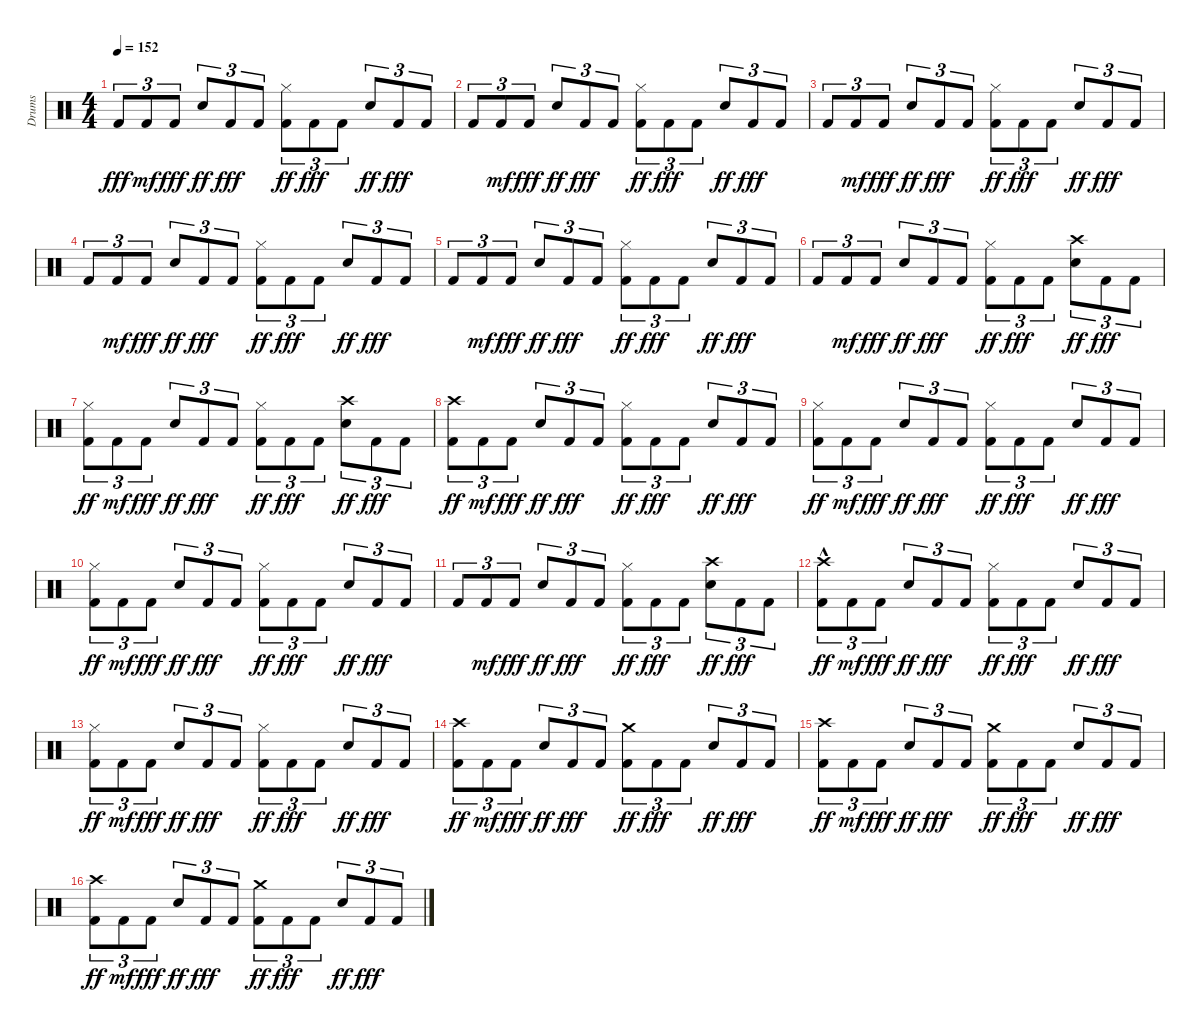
\track ("Drums" "Drums") {instrument percussion}
\staff {score}
\articulation defaults
\ts (4 4)
\tempo 152
\clef neutral
\ks c "Kick (hit) 2".8{tu (3 2) dy fff} "Kick (hit) 2".8{tu (3 2) dy mf} "Kick (hit) 2".8{tu (3 2) dy fff} "Snare (hit) 2".8{tu (3 2) dy ff} "Kick (hit) 2".8{tu (3 2) dy fff} "Kick (hit) 2".8{tu (3 2)}
("Kick (hit) 2" "Hi-Hat (closed)").8{tu (3 2) dy ff} "Kick (hit) 2".8{tu (3 2) dy fff} "Kick (hit) 2".8{tu (3 2)} "Snare (hit) 2".8{tu (3 2) dy ff} "Kick (hit) 2".8{tu (3 2) dy fff} "Kick (hit) 2".8{tu (3 2)} |
"Kick (hit) 2".8{tu (3 2)} "Kick (hit) 2".8{tu (3 2) dy mf} "Kick (hit) 2".8{tu (3 2) dy fff} "Snare (hit) 2".8{tu (3 2) dy ff} "Kick (hit) 2".8{tu (3 2) dy fff} "Kick (hit) 2".8{tu (3 2)} ("Kick (hit) 2" "Hi-Hat (closed)").8{tu (3 2) dy ff} "Kick (hit) 2".8{tu (3 2) dy fff} "Kick (hit) 2".8{tu (3 2)} "Snare (hit) 2".8{tu (3 2) dy ff} "Kick (hit) 2".8{tu (3 2) dy fff} "Kick (hit) 2".8{tu (3 2)} |
"Kick (hit) 2".8{tu (3 2)} "Kick (hit) 2".8{tu (3 2) dy mf} "Kick (hit) 2".8{tu (3 2) dy fff} "Snare (hit) 2".8{tu (3 2) dy ff} "Kick (hit) 2".8{tu (3 2) dy fff} "Kick (hit) 2".8{tu (3 2)} ("Kick (hit) 2" "Hi-Hat (closed)").8{tu (3 2) dy ff} "Kick (hit) 2".8{tu (3 2) dy fff} "Kick (hit) 2".8{tu (3 2)} "Snare (hit) 2".8{tu (3 2) dy ff} "Kick (hit) 2".8{tu (3 2) dy fff} "Kick (hit) 2".8{tu (3 2)} |
"Kick (hit) 2".8{tu (3 2)} "Kick (hit) 2".8{tu (3 2) dy mf} "Kick (hit) 2".8{tu (3 2) dy fff} "Snare (hit) 2".8{tu (3 2) dy ff} "Kick (hit) 2".8{tu (3 2) dy fff} "Kick (hit) 2".8{tu (3 2)} ("Kick (hit) 2" "Hi-Hat (closed)").8{tu (3 2) dy ff} "Kick (hit) 2".8{tu (3 2) dy fff} "Kick (hit) 2".8{tu (3 2)} "Snare (hit) 2".8{tu (3 2) dy ff} "Kick (hit) 2".8{tu (3 2) dy fff} "Kick (hit) 2".8{tu (3 2)} |
"Kick (hit) 2".8{tu (3 2)} "Kick (hit) 2".8{tu (3 2) dy mf} "Kick (hit) 2".8{tu (3 2) dy fff} "Snare (hit) 2".8{tu (3 2) dy ff} "Kick (hit) 2".8{tu (3 2) dy fff} "Kick (hit) 2".8{tu (3 2)} ("Kick (hit) 2" "Hi-Hat (closed)").8{tu (3 2) dy ff} "Kick (hit) 2".8{tu (3 2) dy fff} "Kick (hit) 2".8{tu (3 2)} "Snare (hit) 2".8{tu (3 2) dy ff} "Kick (hit) 2".8{tu (3 2) dy fff} "Kick (hit) 2".8{tu (3 2)} |
"Kick (hit) 2".8{tu (3 2)} "Kick (hit) 2".8{tu (3 2) dy mf} "Kick (hit) 2".8{tu (3 2) dy fff} "Snare (hit) 2".8{tu (3 2) dy ff} "Kick (hit) 2".8{tu (3 2) dy fff} "Kick (hit) 2".8{tu (3 2)} ("Kick (hit) 2" "Hi-Hat (closed)").8{tu (3 2) dy ff} "Kick (hit) 2".8{tu (3 2) dy fff} "Kick (hit) 2".8{tu (3 2)} ("Snare (hit) 2" "Crash high (hit)").8{tu (3 2) dy ff} "Kick (hit) 2".8{tu (3 2) dy fff} "Kick (hit) 2".8{tu (3 2)} |
("Kick (hit) 2" "Hi-Hat (closed)").8{tu (3 2) dy ff} "Kick (hit) 2".8{tu (3 2) dy mf} "Kick (hit) 2".8{tu (3 2) dy fff} "Snare (hit) 2".8{tu (3 2) dy ff} "Kick (hit) 2".8{tu (3 2) dy fff} "Kick (hit) 2".8{tu (3 2)} ("Kick (hit) 2" "Hi-Hat (closed)").8{tu (3 2) dy ff} "Kick (hit) 2".8{tu (3 2) dy fff} "Kick (hit) 2".8{tu (3 2)} ("Snare (hit) 2" "Crash high (hit)").8{tu (3 2) dy ff} "Kick (hit) 2".8{tu (3 2) dy fff} "Kick (hit) 2".8{tu (3 2)} |
("Kick (hit) 2" "Crash high (hit)").8{tu (3 2) dy ff} "Kick (hit) 2".8{tu (3 2) dy mf} "Kick (hit) 2".8{tu (3 2) dy fff} "Snare (hit) 2".8{tu (3 2) dy ff} "Kick (hit) 2".8{tu (3 2) dy fff} "Kick (hit) 2".8{tu (3 2)} ("Kick (hit) 2" "Hi-Hat (closed)").8{tu (3 2) dy ff} "Kick (hit) 2".8{tu (3 2) dy fff} "Kick (hit) 2".8{tu (3 2)} "Snare (hit) 2".8{tu (3 2) dy ff} "Kick (hit) 2".8{tu (3 2) dy fff} "Kick (hit) 2".8{tu (3 2)} |
("Kick (hit) 2" "Hi-Hat (closed)").8{tu (3 2) dy ff} "Kick (hit) 2".8{tu (3 2) dy mf} "Kick (hit) 2".8{tu (3 2) dy fff} "Snare (hit) 2".8{tu (3 2) dy ff} "Kick (hit) 2".8{tu (3 2) dy fff} "Kick (hit) 2".8{tu (3 2)} ("Kick (hit) 2" "Hi-Hat (closed)").8{tu (3 2) dy ff} "Kick (hit) 2".8{tu (3 2) dy fff} "Kick (hit) 2".8{tu (3 2)} "Snare (hit) 2".8{tu (3 2) dy ff} "Kick (hit) 2".8{tu (3 2) dy fff} "Kick (hit) 2".8{tu (3 2)} |
("Kick (hit) 2" "Hi-Hat (closed)").8{tu (3 2) dy ff} "Kick (hit) 2".8{tu (3 2) dy mf} "Kick (hit) 2".8{tu (3 2) dy fff} "Snare (hit) 2".8{tu (3 2) dy ff} "Kick (hit) 2".8{tu (3 2) dy fff} "Kick (hit) 2".8{tu (3 2)} ("Kick (hit) 2" "Hi-Hat (closed)").8{tu (3 2) dy ff} "Kick (hit) 2".8{tu (3 2) dy fff} "Kick (hit) 2".8{tu (3 2)} "Snare (hit) 2".8{tu (3 2) dy ff} "Kick (hit) 2".8{tu (3 2) dy fff} "Kick (hit) 2".8{tu (3 2)} |
"Kick (hit) 2".8{tu (3 2)} "Kick (hit) 2".8{tu (3 2) dy mf} "Kick (hit) 2".8{tu (3 2) dy fff} "Snare (hit) 2".8{tu (3 2) dy ff} "Kick (hit) 2".8{tu (3 2) dy fff} "Kick (hit) 2".8{tu (3 2)} ("Kick (hit) 2" "Hi-Hat (closed)").8{tu (3 2) dy ff} "Kick (hit) 2".8{tu (3 2) dy fff} "Kick (hit) 2".8{tu (3 2)} ("Snare (hit) 2" "Crash high (hit)").8{tu (3 2) dy ff} "Kick (hit) 2".8{tu (3 2) dy fff} "Kick (hit) 2".8{tu (3 2)} |
("Kick (hit) 2" "Crash high (hit)"{hac}).8{tu (3 2) dy ff} "Kick (hit) 2".8{tu (3 2) dy mf} "Kick (hit) 2".8{tu (3 2) dy fff} "Snare (hit) 2".8{tu (3 2) dy ff} "Kick (hit) 2".8{tu (3 2) dy fff} "Kick (hit) 2".8{tu (3 2)} ("Kick (hit) 2" "Hi-Hat (closed)").8{tu (3 2) dy ff} "Kick (hit) 2".8{tu (3 2) dy fff} "Kick (hit) 2".8{tu (3 2)} "Snare (hit) 2".8{tu (3 2) dy ff} "Kick (hit) 2".8{tu (3 2) dy fff} "Kick (hit) 2".8{tu (3 2)} |
("Kick (hit) 2" "Hi-Hat (closed)").8{tu (3 2) dy ff} "Kick (hit) 2".8{tu (3 2) dy mf} "Kick (hit) 2".8{tu (3 2) dy fff} "Snare (hit) 2".8{tu (3 2) dy ff} "Kick (hit) 2".8{tu (3 2) dy fff} "Kick (hit) 2".8{tu (3 2)} ("Kick (hit) 2" "Hi-Hat (closed)").8{tu (3 2) dy ff} "Kick (hit) 2".8{tu (3 2) dy fff} "Kick (hit) 2".8{tu (3 2)} "Snare (hit) 2".8{tu (3 2) dy ff} "Kick (hit) 2".8{tu (3 2) dy fff} "Kick (hit) 2".8{tu (3 2)} |
("Kick (hit) 2" "Crash high (hit)").8{tu (3 2) dy ff} "Kick (hit) 2".8{tu (3 2) dy mf} "Kick (hit) 2".8{tu (3 2) dy fff} "Snare (hit) 2".8{tu (3 2) dy ff} "Kick (hit) 2".8{tu (3 2) dy fff} "Kick (hit) 2".8{tu (3 2)} ("Kick (hit) 2" "Crash medium (hit)").8{tu (3 2) dy ff} "Kick (hit) 2".8{tu (3 2) dy fff} "Kick (hit) 2".8{tu (3 2)} "Snare (hit) 2".8{tu (3 2) dy ff} "Kick (hit) 2".8{tu (3 2) dy fff} "Kick (hit) 2".8{tu (3 2)} |
("Kick (hit) 2" "Crash high (hit)").8{tu (3 2) dy ff} "Kick (hit) 2".8{tu (3 2) dy mf} "Kick (hit) 2".8{tu (3 2) dy fff} "Snare (hit) 2".8{tu (3 2) dy ff} "Kick (hit) 2".8{tu (3 2) dy fff} "Kick (hit) 2".8{tu (3 2)} ("Kick (hit) 2" "Crash medium (hit)").8{tu (3 2) dy ff} "Kick (hit) 2".8{tu (3 2) dy fff} "Kick (hit) 2".8{tu (3 2)} "Snare (hit) 2".8{tu (3 2) dy ff} "Kick (hit) 2".8{tu (3 2) dy fff} "Kick (hit) 2".8{tu (3 2)} |
("Kick (hit) 2" "Crash high (hit)").8{tu (3 2) dy ff} "Kick (hit) 2".8{tu (3 2) dy mf} "Kick (hit) 2".8{tu (3 2) dy fff} "Snare (hit) 2".8{tu (3 2) dy ff} "Kick (hit) 2".8{tu (3 2) dy fff} "Kick (hit) 2".8{tu (3 2)} ("Kick (hit) 2" "Crash medium (hit)").8{tu (3 2) dy ff} "Kick (hit) 2".8{tu (3 2) dy fff} "Kick (hit) 2".8{tu (3 2)} "Snare (hit) 2".8{tu (3 2) dy ff} "Kick (hit) 2".8{tu (3 2) dy fff} "Kick (hit) 2".8{tu (3 2)}
